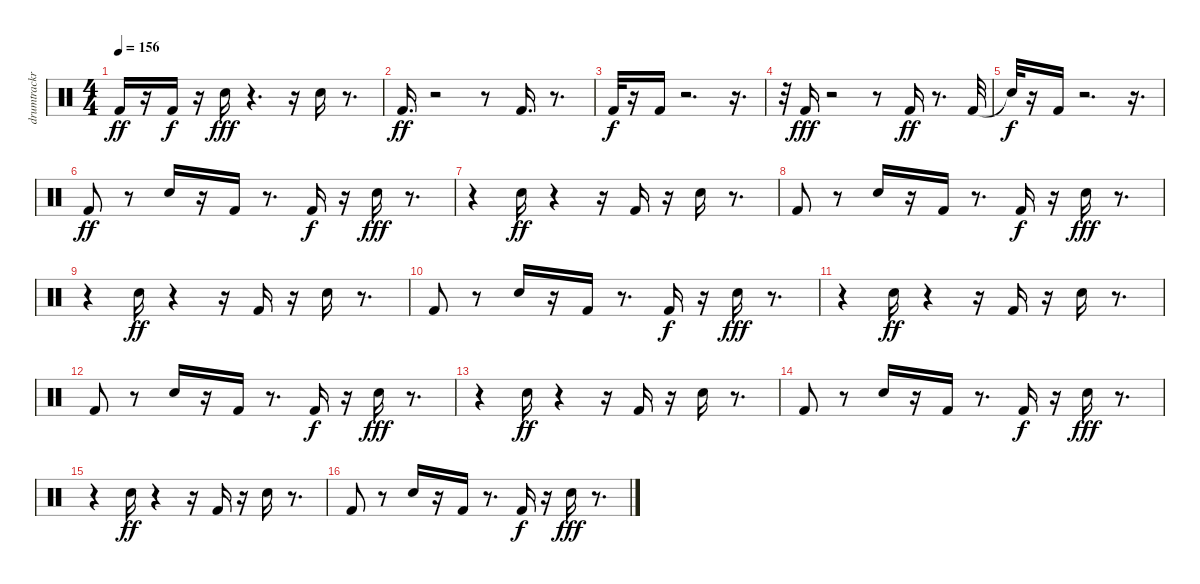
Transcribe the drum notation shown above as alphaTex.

\track ("drumtrackr " "drumtrackr") {instrument percussion}
\staff {score}
\articulation defaults
\ts (4 4)
\tempo 156
\clef neutral
\ks c "Kick (hit) 2".16{dy ff}
r.16 "Kick (hit) 2".16{dy f} r.16 "Snare (hit) 2".16{dy fff} r.4{d} r.16 "Snare (hit) 2".16 r.8{d} |
"Kick (hit) 2".16{d dy ff} r.2 r.8 "Kick (hit) 2".16{d} r.8{d} |
"Kick (hit) 2".32{dy f} r.16 "Kick (hit) 2".16 r.2{d} r.16{d} |
r.32 "Kick (hit) 2".16{dy fff} r.2 r.8 "Kick (hit) 2".16{dy ff} r.8{d} "Kick (hit) 2".32 |
"Snare (hit)"{t}.32{dy f} r.16 "Kick (hit) 2".16 r.2{d} r.16{d} |
"Kick (hit) 2".8{dy ff} r.8 "Snare (hit) 2".16 r.16 "Kick (hit) 2".16 r.8{d} "Kick (hit) 2".16{dy f} r.16 "Snare (hit) 2".16{dy fff} r.8{d} |
r.4 "Snare (hit) 2".16{dy ff} r.4 r.16 "Kick (hit) 2".16 r.16 "Snare (hit) 2".16 r.8{d} |
"Kick (hit) 2".8 r.8 "Snare (hit) 2".16 r.16 "Kick (hit) 2".16 r.8{d} "Kick (hit) 2".16{dy f} r.16 "Snare (hit) 2".16{dy fff} r.8{d} |
r.4 "Snare (hit) 2".16{dy ff} r.4 r.16 "Kick (hit) 2".16 r.16 "Snare (hit) 2".16 r.8{d} |
"Kick (hit) 2".8 r.8 "Snare (hit) 2".16 r.16 "Kick (hit) 2".16 r.8{d} "Kick (hit) 2".16{dy f} r.16 "Snare (hit) 2".16{dy fff} r.8{d} |
r.4 "Snare (hit) 2".16{dy ff} r.4 r.16 "Kick (hit) 2".16 r.16 "Snare (hit) 2".16 r.8{d} |
"Kick (hit) 2".8 r.8 "Snare (hit) 2".16 r.16 "Kick (hit) 2".16 r.8{d} "Kick (hit) 2".16{dy f} r.16 "Snare (hit) 2".16{dy fff} r.8{d} |
r.4 "Snare (hit) 2".16{dy ff} r.4 r.16 "Kick (hit) 2".16 r.16 "Snare (hit) 2".16 r.8{d} |
"Kick (hit) 2".8 r.8 "Snare (hit) 2".16 r.16 "Kick (hit) 2".16 r.8{d} "Kick (hit) 2".16{dy f} r.16 "Snare (hit) 2".16{dy fff} r.8{d} |
r.4 "Snare (hit) 2".16{dy ff} r.4 r.16 "Kick (hit) 2".16 r.16 "Snare (hit) 2".16 r.8{d} |
"Kick (hit) 2".8 r.8 "Snare (hit) 2".16 r.16 "Kick (hit) 2".16 r.8{d} "Kick (hit) 2".16{dy f} r.16 "Snare (hit) 2".16{dy fff} r.8{d}
